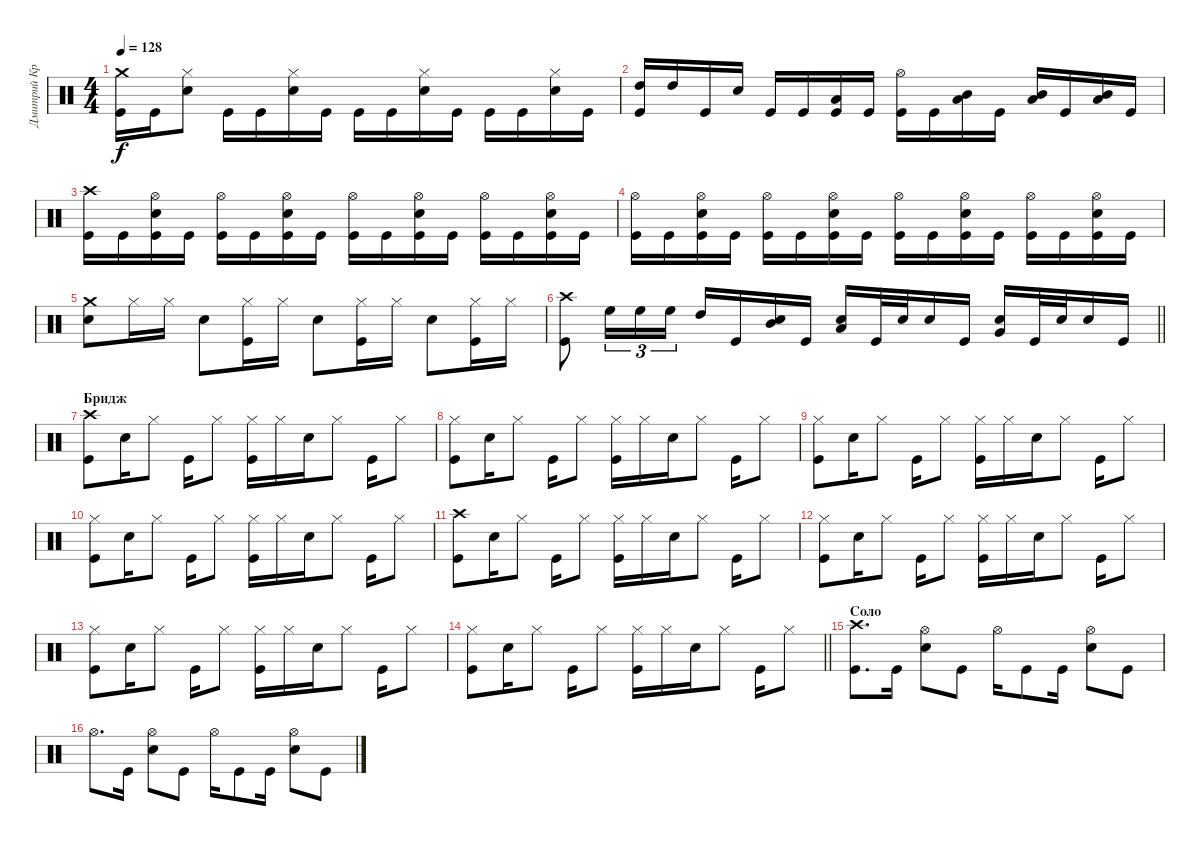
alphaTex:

\track ("Дмитрий Кривенков" "Дмитрий Кр") {instrument percussion}
\staff {score}
\articulation defaults
\ts (4 4)
\tempo 128
\clef neutral
\ks c
("Crash medium (hit)" "Kick (hit)").16{dy f} "Kick (hit)".16 ("Snare (hit) 2" "Hi-Hat (closed)").8 "Kick (hit)".16 "Kick (hit)".16 ("Snare (hit) 2" "Hi-Hat (closed)").16 "Kick (hit)".16 "Kick (hit)".16 "Kick (hit)".16 ("Snare (hit) 2" "Hi-Hat (closed)").16 "Kick (hit)".16 "Kick (hit)".16 "Kick (hit)".16 ("Snare (hit) 2" "Hi-Hat (closed)").16 "Kick (hit)".16 |
("High Tom (hit)" "Kick (hit)").16 "High Tom (hit)".16 "Kick (hit)".16 "Snare (hit) 2".16 "Kick (hit)".16 "Kick (hit)".16 ("Kick (hit)" "Low Tom (hit)").16 "Kick (hit)".16 ("Kick (hit)" "Hi-Hat (open)").16 "Kick (hit)".16 ("Mid Tom (hit)" "Low Tom (hit)").16{bd 240} "Kick (hit)".16 ("Mid Tom (hit)" "Low Tom (hit)").16{bd 240} "Kick (hit)".16 ("Mid Tom (hit)" "Low Tom (hit)").16{bd 240} "Kick (hit)".16 |
("Crash high (hit)" "Kick (hit)").16 "Kick (hit)".16 ("Snare (hit) 2" "Hi-Hat (open)" "Kick (hit)").16 "Kick (hit)".16 ("Hi-Hat (open)" "Kick (hit)").16 "Kick (hit)".16 ("Snare (hit) 2" "Hi-Hat (open)" "Kick (hit)").16 "Kick (hit)".16 ("Hi-Hat (open)" "Kick (hit)").16 "Kick (hit)".16 ("Snare (hit) 2" "Hi-Hat (open)" "Kick (hit)").16 "Kick (hit)".16 ("Hi-Hat (open)" "Kick (hit)").16 "Kick (hit)".16 ("Snare (hit) 2" "Hi-Hat (open)" "Kick (hit)").16 "Kick (hit)".16 |
("Hi-Hat (open)" "Kick (hit)").16 "Kick (hit)".16 ("Snare (hit) 2" "Hi-Hat (open)" "Kick (hit)").16 "Kick (hit)".16 ("Hi-Hat (open)" "Kick (hit)").16 "Kick (hit)".16 ("Snare (hit) 2" "Hi-Hat (open)" "Kick (hit)").16 "Kick (hit)".16 ("Hi-Hat (open)" "Kick (hit)").16 "Kick (hit)".16 ("Snare (hit) 2" "Hi-Hat (open)" "Kick (hit)").16 "Kick (hit)".16 ("Hi-Hat (open)" "Kick (hit)").16 "Kick (hit)".16 ("Snare (hit) 2" "Hi-Hat (open)" "Kick (hit)").16 "Kick (hit)".16 |
("Crash medium (hit)" "Snare (hit) 2").8 "Hi-Hat (closed)".16 "Hi-Hat (closed)".16 "Snare (hit) 2".8 ("Kick (hit)" "Hi-Hat (closed)").16 "Hi-Hat (closed)".16 "Snare (hit) 2".8 ("Kick (hit)" "Hi-Hat (closed)").16 "Hi-Hat (closed)".16 "Snare (hit) 2".8 ("Kick (hit)" "Hi-Hat (closed)").16 "Hi-Hat (closed)".16 |
\barLineRight lightlight
("Kick (hit)" "Crash high (hit)").8 "High Floor Tom (hit)".16{tu (3 2)} "High Floor Tom (hit)".16{tu (3 2)} "High Floor Tom (hit)".16{tu (3 2)} "High Tom (hit)".16 "Kick (hit)".16 ("Mid Tom (hit)" "Snare (hit) 2").16 "Kick (hit)".16 ("Low Tom (hit)" "Snare (hit) 2").16 "Kick (hit)".32 "Snare (hit) 2".32 "Snare (hit) 2".16 "Kick (hit)".16 ("Very Low Tom (hit)" "Snare (hit) 2").16 "Kick (hit)".32 "Snare (hit) 2".32 "Snare (hit) 2".16 "Kick (hit)".16 |
\section ("" "Бридж")
("Crash high (hit)" "Kick (hit)").8 "Snare (hit) 2".16 "Hi-Hat (closed)".8 "Kick (hit)".16 "Hi-Hat (closed)".8 ("Kick (hit)" "Hi-Hat (closed)").16 "Hi-Hat (closed)".16 "Snare (hit) 2".16 "Hi-Hat (closed)".8 "Kick (hit)".16 "Hi-Hat (closed)".8 |
("Kick (hit)" "Hi-Hat (closed)").8 "Snare (hit) 2".16 "Hi-Hat (closed)".8 "Kick (hit)".16 "Hi-Hat (closed)".8 ("Kick (hit)" "Hi-Hat (closed)").16 "Hi-Hat (closed)".16 "Snare (hit) 2".16 "Hi-Hat (closed)".8 "Kick (hit)".16 "Hi-Hat (closed)".8 |
("Kick (hit)" "Hi-Hat (closed)").8 "Snare (hit) 2".16 "Hi-Hat (closed)".8 "Kick (hit)".16 "Hi-Hat (closed)".8 ("Kick (hit)" "Hi-Hat (closed)").16 "Hi-Hat (closed)".16 "Snare (hit) 2".16 "Hi-Hat (closed)".8 "Kick (hit)".16 "Hi-Hat (closed)".8 |
("Kick (hit)" "Hi-Hat (closed)").8 "Snare (hit) 2".16 "Hi-Hat (closed)".8 "Kick (hit)".16 "Hi-Hat (closed)".8 ("Kick (hit)" "Hi-Hat (closed)").16 "Hi-Hat (closed)".16 "Snare (hit) 2".16 "Hi-Hat (closed)".8 "Kick (hit)".16 "Hi-Hat (closed)".8 |
("Crash high (hit)" "Kick (hit)").8 "Snare (hit) 2".16 "Hi-Hat (closed)".8 "Kick (hit)".16 "Hi-Hat (closed)".8 ("Kick (hit)" "Hi-Hat (closed)").16 "Hi-Hat (closed)".16 "Snare (hit) 2".16 "Hi-Hat (closed)".8 "Kick (hit)".16 "Hi-Hat (closed)".8 |
("Kick (hit)" "Hi-Hat (closed)").8 "Snare (hit) 2".16 "Hi-Hat (closed)".8 "Kick (hit)".16 "Hi-Hat (closed)".8 ("Kick (hit)" "Hi-Hat (closed)").16 "Hi-Hat (closed)".16 "Snare (hit) 2".16 "Hi-Hat (closed)".8 "Kick (hit)".16 "Hi-Hat (closed)".8 |
("Kick (hit)" "Hi-Hat (closed)").8 "Snare (hit) 2".16 "Hi-Hat (closed)".8 "Kick (hit)".16 "Hi-Hat (closed)".8 ("Kick (hit)" "Hi-Hat (closed)").16 "Hi-Hat (closed)".16 "Snare (hit) 2".16 "Hi-Hat (closed)".8 "Kick (hit)".16 "Hi-Hat (closed)".8 |
\barLineRight lightlight
("Kick (hit)" "Hi-Hat (closed)").8 "Snare (hit) 2".16 "Hi-Hat (closed)".8 "Kick (hit)".16 "Hi-Hat (closed)".8 ("Kick (hit)" "Hi-Hat (closed)").16 "Hi-Hat (closed)".16 "Snare (hit) 2".16 "Hi-Hat (closed)".8 "Kick (hit)".16 "Hi-Hat (closed)".8 |
\section ("" "Соло")
("Crash high (hit)" "Kick (hit)").8{d} "Kick (hit)".16 ("Snare (hit) 2" "Hi-Hat (open)").8 "Kick (hit)".8 "Hi-Hat (open)".16 "Kick (hit)".8 "Kick (hit)".16 ("Snare (hit) 2" "Hi-Hat (open)").8 "Kick (hit)".8 |
"Hi-Hat (open)".8{d} "Kick (hit)".16 ("Snare (hit) 2" "Hi-Hat (open)").8 "Kick (hit)".8 "Hi-Hat (open)".16 "Kick (hit)".8 "Kick (hit)".16 ("Snare (hit) 2" "Hi-Hat (open)").8 "Kick (hit)".8
